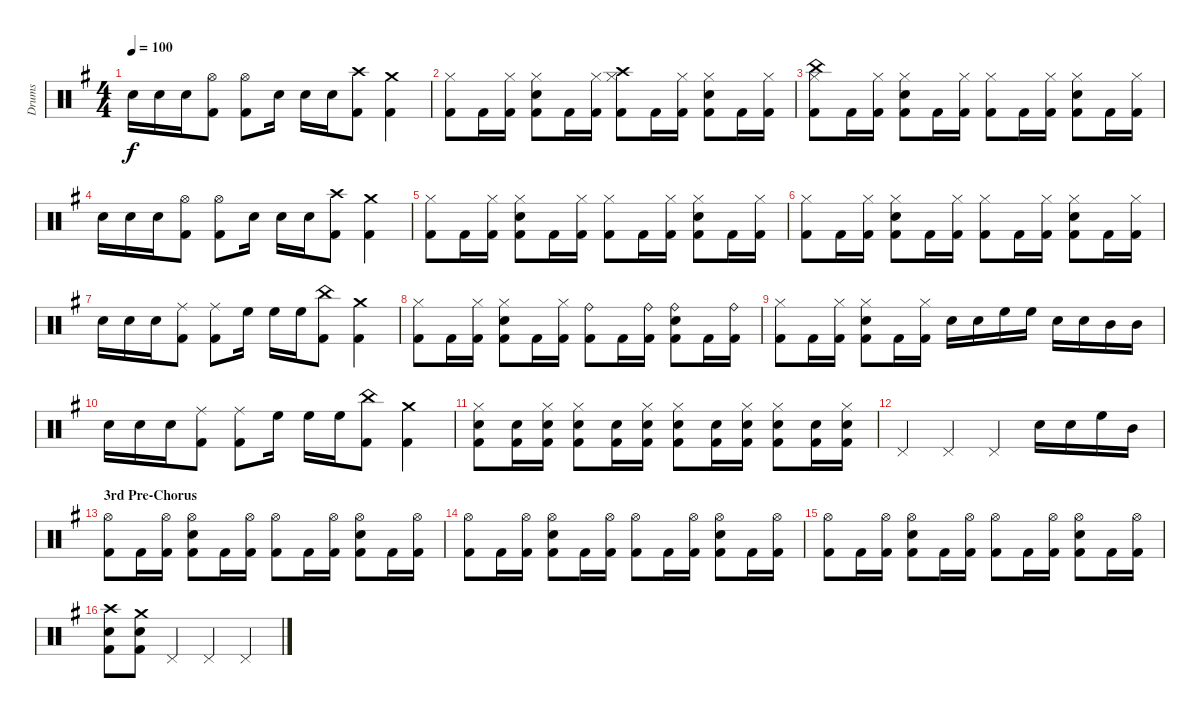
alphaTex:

\track ("Drums" "Drums") {instrument percussion}
\staff {score}
\articulation defaults
\ts (4 4)
\tempo 100
\clef neutral
\ks eminor "Snare (hit) 2".16{dy f} "Snare (hit) 2".16 "Snare (hit) 2".16
("Hi-Hat (open)" "Kick (hit) 2").8 ("Hi-Hat (open)" "Kick (hit) 2").8 "Snare (hit) 2".16 "Snare (hit) 2".16 "Snare (hit) 2".16 ("Crash high (hit)" "Kick (hit) 2").8 ("Crash medium (hit)" "Kick (hit) 2").4 |
("Hi-Hat (closed)" "Kick (hit) 2").8 "Kick (hit) 2".16 ("Hi-Hat (closed)" "Kick (hit) 2").16 ("Hi-Hat (closed)" "Kick (hit) 2" "Snare (hit) 2").8 "Kick (hit) 2".16 ("Hi-Hat (closed)" "Kick (hit) 2").16 ("Hi-Hat (closed)" "Kick (hit) 2" "Crash high (hit)").8 "Kick (hit) 2".16 ("Hi-Hat (closed)" "Kick (hit) 2").16 ("Hi-Hat (closed)" "Kick (hit) 2" "Snare (hit) 2").8 "Kick (hit) 2".16 ("Hi-Hat (closed)" "Kick (hit) 2").16 |
("Hi-Hat (closed)" "Kick (hit) 2" "China (hit)").8 "Kick (hit) 2".16 ("Hi-Hat (closed)" "Kick (hit) 2").16 ("Hi-Hat (closed)" "Kick (hit) 2" "Snare (hit) 2").8 "Kick (hit) 2".16 ("Hi-Hat (closed)" "Kick (hit) 2").16 ("Hi-Hat (closed)" "Kick (hit) 2").8 "Kick (hit) 2".16 ("Hi-Hat (closed)" "Kick (hit) 2").16 ("Hi-Hat (closed)" "Kick (hit) 2" "Snare (hit) 2").8 "Kick (hit) 2".16 ("Hi-Hat (closed)" "Kick (hit) 2").16 |
"Snare (hit) 2".16 "Snare (hit) 2".16 "Snare (hit) 2".16 ("Hi-Hat (open)" "Kick (hit) 2").8 ("Hi-Hat (open)" "Kick (hit) 2").8 "Snare (hit) 2".16 "Snare (hit) 2".16 "Snare (hit) 2".16 ("Crash high (hit)" "Kick (hit) 2").8 ("Crash medium (hit)" "Kick (hit) 2").4 |
("Hi-Hat (closed)" "Kick (hit) 2").8 "Kick (hit) 2".16 ("Hi-Hat (closed)" "Kick (hit) 2").16 ("Hi-Hat (closed)" "Kick (hit) 2" "Snare (hit) 2").8 "Kick (hit) 2".16 ("Hi-Hat (closed)" "Kick (hit) 2").16 ("Hi-Hat (closed)" "Kick (hit) 2").8 "Kick (hit) 2".16 ("Hi-Hat (closed)" "Kick (hit) 2").16 ("Hi-Hat (closed)" "Kick (hit) 2" "Snare (hit) 2").8 "Kick (hit) 2".16 ("Hi-Hat (closed)" "Kick (hit) 2").16 |
("Hi-Hat (closed)" "Kick (hit) 2").8 "Kick (hit) 2".16 ("Hi-Hat (closed)" "Kick (hit) 2").16 ("Hi-Hat (closed)" "Kick (hit) 2" "Snare (hit) 2").8 "Kick (hit) 2".16 ("Hi-Hat (closed)" "Kick (hit) 2").16 ("Hi-Hat (closed)" "Kick (hit) 2").8 "Kick (hit) 2".16 ("Hi-Hat (closed)" "Kick (hit) 2").16 ("Hi-Hat (closed)" "Kick (hit) 2" "Snare (hit) 2").8 "Kick (hit) 2".16 ("Hi-Hat (closed)" "Kick (hit) 2").16 |
"Snare (hit) 2".16 "Snare (hit) 2".16 "Snare (hit) 2".16 ("Ride (middle)" "Kick (hit) 2").8 ("Ride (middle)" "Kick (hit) 2").8 "High Floor Tom (hit)".16 "High Floor Tom (hit)".16 "High Floor Tom (hit)".16 ("China (hit)" "Kick (hit) 2").8 ("Crash medium (hit)" "Kick (hit) 2").4 |
("Hi-Hat (closed)" "Kick (hit) 2").8 "Kick (hit) 2".16 ("Hi-Hat (closed)" "Kick (hit) 2").16 ("Hi-Hat (closed)" "Kick (hit) 2" "Snare (hit) 2").8 "Kick (hit) 2".16 ("Hi-Hat (closed)" "Kick (hit) 2").16 ("Ride (bell)" "Kick (hit) 2").8 "Kick (hit) 2".16 ("Ride (bell)" "Kick (hit) 2").16 ("Ride (bell)" "Kick (hit) 2" "Snare (hit) 2").8 "Kick (hit) 2".16 ("Ride (bell)" "Kick (hit) 2").16 |
("Hi-Hat (closed)" "Kick (hit) 2").8 "Kick (hit) 2".16 ("Hi-Hat (closed)" "Kick (hit) 2").16 ("Hi-Hat (closed)" "Kick (hit) 2" "Snare (hit) 2").8 "Kick (hit) 2".16 ("Hi-Hat (closed)" "Kick (hit) 2").16 "Snare (hit) 2".16 "Snare (hit) 2".16 "High Floor Tom (hit)".16 "High Floor Tom (hit)".16 "Snare (hit) 2".16 "Snare (hit) 2".16 "Mid Tom (hit)".16 "Mid Tom (hit)".16 |
"Snare (hit) 2".16 "Snare (hit) 2".16 "Snare (hit) 2".16 ("Ride (middle)" "Kick (hit) 2").8 ("Ride (middle)" "Kick (hit) 2").8 "High Floor Tom (hit)".16 "High Floor Tom (hit)".16 "High Floor Tom (hit)".16 ("China (hit)" "Kick (hit) 2").8 ("Crash medium (hit)" "Kick (hit) 2").4 |
("Hi-Hat (closed)" "Kick (hit) 2" "Snare (hit) 2").8 ("Kick (hit) 2" "Snare (hit) 2").16 ("Hi-Hat (closed)" "Kick (hit) 2" "Snare (hit) 2").16 ("Hi-Hat (closed)" "Kick (hit) 2" "Snare (hit) 2").8 ("Kick (hit) 2" "Snare (hit) 2").16 ("Hi-Hat (closed)" "Kick (hit) 2" "Snare (hit) 2").16 ("Hi-Hat (closed)" "Kick (hit) 2" "Snare (hit) 2").8 ("Kick (hit) 2" "Snare (hit) 2").16 ("Hi-Hat (closed)" "Kick (hit) 2" "Snare (hit) 2").16 ("Hi-Hat (closed)" "Kick (hit) 2" "Snare (hit) 2").8 ("Kick (hit) 2" "Snare (hit) 2").16 ("Hi-Hat (closed)" "Kick (hit) 2" "Snare (hit) 2").16 |
"Pedal Hi-Hat (hit)".4 "Pedal Hi-Hat (hit)".4 "Pedal Hi-Hat (hit)".4 "Snare (hit) 2".16 "Snare (hit) 2".16 "High Floor Tom (hit)".16 "Mid Tom (hit)".16 |
\section ("" "3rd Pre-Chorus")
("Hi-Hat (open)" "Kick (hit) 2").8 "Kick (hit) 2".16 ("Hi-Hat (open)" "Kick (hit) 2").16 ("Hi-Hat (open)" "Kick (hit) 2" "Snare (hit) 2").8 "Kick (hit) 2".16 ("Hi-Hat (open)" "Kick (hit) 2").16 ("Hi-Hat (open)" "Kick (hit) 2").8 "Kick (hit) 2".16 ("Hi-Hat (open)" "Kick (hit) 2").16 ("Hi-Hat (open)" "Kick (hit) 2" "Snare (hit) 2").8 "Kick (hit) 2".16 ("Hi-Hat (open)" "Kick (hit) 2").16 |
("Hi-Hat (open)" "Kick (hit) 2").8 "Kick (hit) 2".16 ("Hi-Hat (open)" "Kick (hit) 2").16 ("Hi-Hat (open)" "Kick (hit) 2" "Snare (hit) 2").8 "Kick (hit) 2".16 ("Hi-Hat (open)" "Kick (hit) 2").16 ("Hi-Hat (open)" "Kick (hit) 2").8 "Kick (hit) 2".16 ("Hi-Hat (open)" "Kick (hit) 2").16 ("Hi-Hat (open)" "Kick (hit) 2" "Snare (hit) 2").8 "Kick (hit) 2".16 ("Hi-Hat (open)" "Kick (hit) 2").16 |
("Hi-Hat (open)" "Kick (hit) 2").8 "Kick (hit) 2".16 ("Hi-Hat (open)" "Kick (hit) 2").16 ("Hi-Hat (open)" "Kick (hit) 2" "Snare (hit) 2").8 "Kick (hit) 2".16 ("Hi-Hat (open)" "Kick (hit) 2").16 ("Hi-Hat (open)" "Kick (hit) 2").8 "Kick (hit) 2".16 ("Hi-Hat (open)" "Kick (hit) 2").16 ("Hi-Hat (open)" "Kick (hit) 2" "Snare (hit) 2").8 "Kick (hit) 2".16 ("Hi-Hat (open)" "Kick (hit) 2").16 |
("Crash high (hit)" "Snare (hit) 2" "Kick (hit) 2").8 ("Crash medium (hit)" "Snare (hit) 2" "Kick (hit) 2").8 "Pedal Hi-Hat (hit)".4 "Pedal Hi-Hat (hit)".4 "Pedal Hi-Hat (hit)".4
